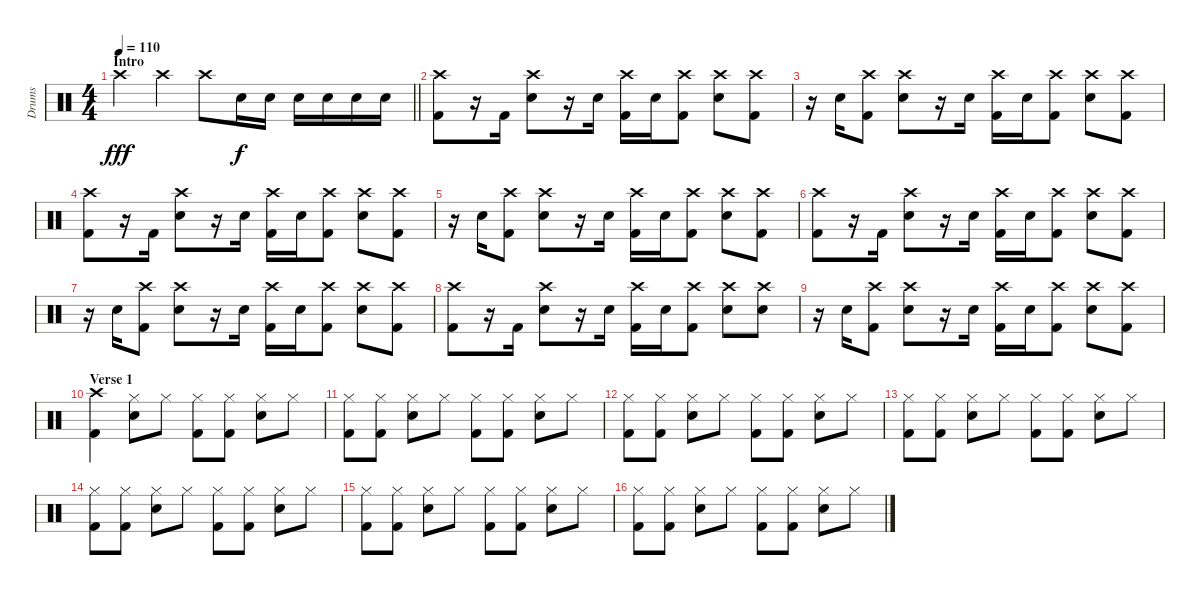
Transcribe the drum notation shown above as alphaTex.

\track ("Drums" "Drums") {instrument percussion}
\staff {score}
\articulation defaults
\ts (4 4)
\section ("" "Intro")
\tempo 110
\clef neutral
\barLineRight lightlight
\ks c "Crash high (hit)".4{dy fff} "Crash high (hit)".4 "Crash high (hit)".8 "Electric Snare (hit)".16{dy f} "Electric Snare (hit)".16 "Electric Snare (hit)".16 "Electric Snare (hit)".16 "Electric Snare (hit)".16 "Electric Snare (hit)".16
|
("Crash high (hit)" "Kick (hit) 2").8 r.16 "Kick (hit) 2".16 ("Crash high (hit)" "Electric Snare (hit)").8 r.16 "Electric Snare (hit)".16 ("Crash high (hit)" "Kick (hit) 2").16 "Electric Snare (hit)".16 ("Crash high (hit)" "Kick (hit) 2").8 ("Crash high (hit)" "Electric Snare (hit)").8 ("Crash high (hit)" "Kick (hit) 2").8 |
r.16 "Electric Snare (hit)".16 ("Crash high (hit)" "Kick (hit) 2").8 ("Crash high (hit)" "Electric Snare (hit)").8 r.16 "Electric Snare (hit)".16 ("Crash high (hit)" "Kick (hit) 2").16 "Electric Snare (hit)".16 ("Crash high (hit)" "Kick (hit) 2").8 ("Crash high (hit)" "Electric Snare (hit)").8 ("Crash high (hit)" "Kick (hit) 2").8 |
("Crash high (hit)" "Kick (hit) 2").8 r.16 "Kick (hit) 2".16 ("Crash high (hit)" "Electric Snare (hit)").8 r.16 "Electric Snare (hit)".16 ("Crash high (hit)" "Kick (hit) 2").16 "Electric Snare (hit)".16 ("Crash high (hit)" "Kick (hit) 2").8 ("Crash high (hit)" "Electric Snare (hit)").8 ("Crash high (hit)" "Kick (hit) 2").8 |
r.16 "Electric Snare (hit)".16 ("Crash high (hit)" "Kick (hit) 2").8 ("Crash high (hit)" "Electric Snare (hit)").8 r.16 "Electric Snare (hit)".16 ("Crash high (hit)" "Kick (hit) 2").16 "Electric Snare (hit)".16 ("Crash high (hit)" "Kick (hit) 2").8 ("Crash high (hit)" "Electric Snare (hit)").8 ("Crash high (hit)" "Kick (hit) 2").8 |
("Crash high (hit)" "Kick (hit) 2").8 r.16 "Kick (hit) 2".16 ("Crash high (hit)" "Electric Snare (hit)").8 r.16 "Electric Snare (hit)".16 ("Crash high (hit)" "Kick (hit) 2").16 "Electric Snare (hit)".16 ("Crash high (hit)" "Kick (hit) 2").8 ("Crash high (hit)" "Electric Snare (hit)").8 ("Crash high (hit)" "Kick (hit) 2").8 |
r.16 "Electric Snare (hit)".16 ("Crash high (hit)" "Kick (hit) 2").8 ("Crash high (hit)" "Electric Snare (hit)").8 r.16 "Electric Snare (hit)".16 ("Crash high (hit)" "Kick (hit) 2").16 "Electric Snare (hit)".16 ("Crash high (hit)" "Kick (hit) 2").8 ("Crash high (hit)" "Electric Snare (hit)").8 ("Crash high (hit)" "Kick (hit) 2").8 |
("Crash high (hit)" "Kick (hit) 2").8 r.16 "Kick (hit) 2".16 ("Crash high (hit)" "Electric Snare (hit)").8 r.16 "Electric Snare (hit)".16 ("Crash high (hit)" "Kick (hit) 2").16 "Electric Snare (hit)".16 ("Crash high (hit)" "Kick (hit) 2").8 ("Crash high (hit)" "Electric Snare (hit)").8 ("Crash high (hit)" "Electric Snare (hit)").8 |
r.16 "Electric Snare (hit)".16 ("Crash high (hit)" "Kick (hit) 2").8 ("Crash high (hit)" "Electric Snare (hit)").8 r.16 "Electric Snare (hit)".16 ("Crash high (hit)" "Kick (hit) 2").16 "Electric Snare (hit)".16 ("Crash high (hit)" "Kick (hit) 2").8 ("Crash high (hit)" "Electric Snare (hit)").8 ("Crash high (hit)" "Kick (hit) 2").8 |
\section ("" "Verse 1")
("Crash high (hit)" "Kick (hit) 2").4 ("Hi-Hat (closed)" "Electric Snare (hit)").8 "Hi-Hat (closed)".8 ("Hi-Hat (closed)" "Kick (hit) 2").8 ("Hi-Hat (closed)" "Kick (hit) 2").8 ("Hi-Hat (closed)" "Electric Snare (hit)").8 "Hi-Hat (closed)".8 |
("Hi-Hat (closed)" "Kick (hit) 2").8 ("Hi-Hat (closed)" "Kick (hit) 2").8 ("Hi-Hat (closed)" "Electric Snare (hit)").8 "Hi-Hat (closed)".8 ("Hi-Hat (closed)" "Kick (hit) 2").8 ("Hi-Hat (closed)" "Kick (hit) 2").8 ("Hi-Hat (closed)" "Electric Snare (hit)").8 "Hi-Hat (closed)".8 |
("Hi-Hat (closed)" "Kick (hit) 2").8 ("Hi-Hat (closed)" "Kick (hit) 2").8 ("Hi-Hat (closed)" "Electric Snare (hit)").8 "Hi-Hat (closed)".8 ("Hi-Hat (closed)" "Kick (hit) 2").8 ("Hi-Hat (closed)" "Kick (hit) 2").8 ("Hi-Hat (closed)" "Electric Snare (hit)").8 "Hi-Hat (closed)".8 |
("Hi-Hat (closed)" "Kick (hit) 2").8 ("Hi-Hat (closed)" "Kick (hit) 2").8 ("Hi-Hat (closed)" "Electric Snare (hit)").8 "Hi-Hat (closed)".8 ("Hi-Hat (closed)" "Kick (hit) 2").8 ("Hi-Hat (closed)" "Kick (hit) 2").8 ("Hi-Hat (closed)" "Electric Snare (hit)").8 "Hi-Hat (closed)".8 |
("Hi-Hat (closed)" "Kick (hit) 2").8 ("Hi-Hat (closed)" "Kick (hit) 2").8 ("Hi-Hat (closed)" "Electric Snare (hit)").8 "Hi-Hat (closed)".8 ("Hi-Hat (closed)" "Kick (hit) 2").8 ("Hi-Hat (closed)" "Kick (hit) 2").8 ("Hi-Hat (closed)" "Electric Snare (hit)").8 "Hi-Hat (closed)".8 |
("Hi-Hat (closed)" "Kick (hit) 2").8 ("Hi-Hat (closed)" "Kick (hit) 2").8 ("Hi-Hat (closed)" "Electric Snare (hit)").8 "Hi-Hat (closed)".8 ("Hi-Hat (closed)" "Kick (hit) 2").8 ("Hi-Hat (closed)" "Kick (hit) 2").8 ("Hi-Hat (closed)" "Electric Snare (hit)").8 "Hi-Hat (closed)".8 |
("Hi-Hat (closed)" "Kick (hit) 2").8 ("Hi-Hat (closed)" "Kick (hit) 2").8 ("Hi-Hat (closed)" "Electric Snare (hit)").8 "Hi-Hat (closed)".8 ("Hi-Hat (closed)" "Kick (hit) 2").8 ("Hi-Hat (closed)" "Kick (hit) 2").8 ("Hi-Hat (closed)" "Electric Snare (hit)").8 "Hi-Hat (closed)".8
